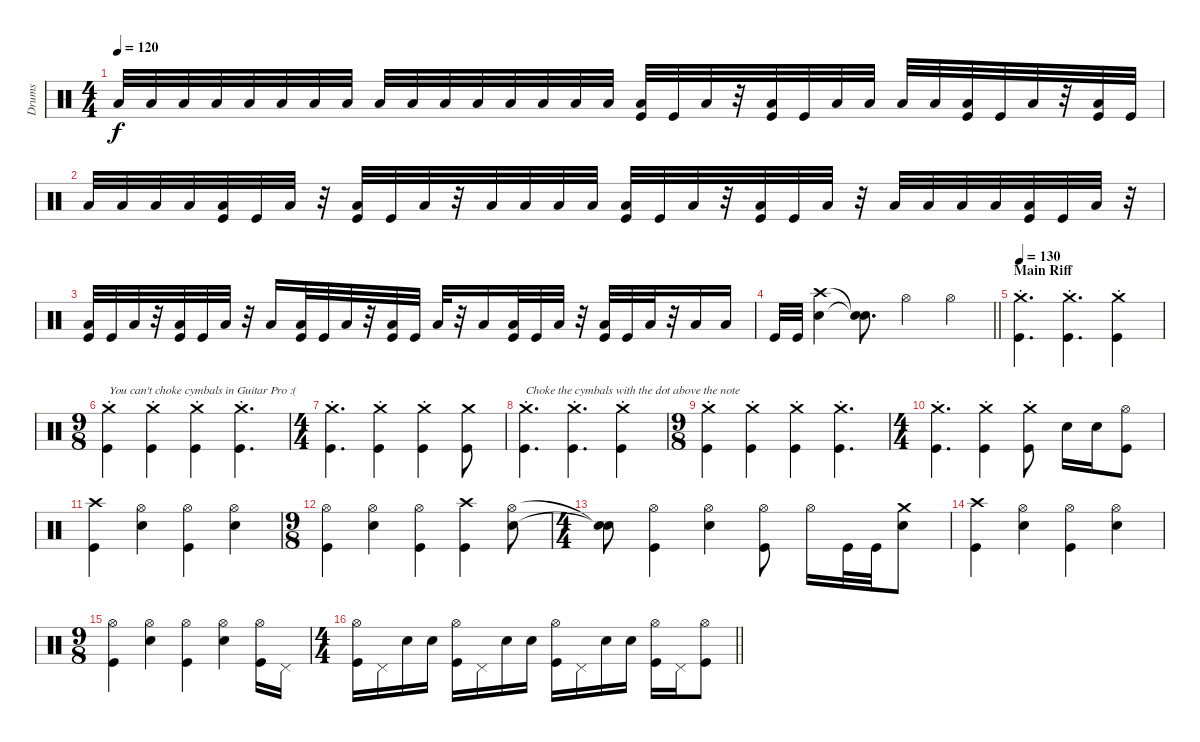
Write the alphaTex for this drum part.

\track ("Drums" "Drums") {instrument percussion}
\staff {score}
\articulation defaults
\ts (4 4)
\tempo 120
\clef neutral
\ks c "Low Floor Tom (hit)".32{dy f} "Low Floor Tom (hit)".32 "Low Floor Tom (hit)".32 "Low Floor Tom (hit)".32 "Low Floor Tom (hit)".32 "Low Floor Tom (hit)".32 "Low Floor Tom (hit)".32 "Low Floor Tom (hit)".32 "Low Floor Tom (hit)".32 "Low Floor Tom (hit)".32 "Low Floor Tom (hit)".32 "Low Floor Tom (hit)".32 "Low Floor Tom (hit)".32 "Low Floor Tom (hit)".32 "Low Floor Tom (hit)".32 "Low Floor Tom (hit)".32
("Low Floor Tom (hit)" "Kick (hit)").32 "Kick (hit)".32 "Low Floor Tom (hit)".32 r.32 ("Low Floor Tom (hit)" "Kick (hit)").32 "Kick (hit)".32 "Low Floor Tom (hit)".32 "Low Floor Tom (hit)".32 "Low Floor Tom (hit)".32 "Low Floor Tom (hit)".32 ("Low Floor Tom (hit)" "Kick (hit)").32 "Kick (hit)".32 "Low Floor Tom (hit)".32 r.32 ("Low Floor Tom (hit)" "Kick (hit)").32 "Kick (hit)".32 |
"Low Floor Tom (hit)".32 "Low Floor Tom (hit)".32 "Low Floor Tom (hit)".32 "Low Floor Tom (hit)".32 ("Low Floor Tom (hit)" "Kick (hit)").32 "Kick (hit)".32 "Low Floor Tom (hit)".32 r.32 ("Low Floor Tom (hit)" "Kick (hit)").32 "Kick (hit)".32 "Low Floor Tom (hit)".32 r.32 "Low Floor Tom (hit)".32 "Low Floor Tom (hit)".32 "Low Floor Tom (hit)".32 "Low Floor Tom (hit)".32 ("Low Floor Tom (hit)" "Kick (hit)").32 "Kick (hit)".32 "Low Floor Tom (hit)".32 r.32 ("Low Floor Tom (hit)" "Kick (hit)").32 "Kick (hit)".32 "Low Floor Tom (hit)".32 r.32 "Low Floor Tom (hit)".32 "Low Floor Tom (hit)".32 "Low Floor Tom (hit)".32 "Low Floor Tom (hit)".32 ("Low Floor Tom (hit)" "Kick (hit)").32 "Kick (hit)".32 "Low Floor Tom (hit)".32 r.32 |
("Low Floor Tom (hit)" "Kick (hit)").32 "Kick (hit)".32 "Low Floor Tom (hit)".32 r.32 ("Low Floor Tom (hit)" "Kick (hit)").32 "Kick (hit)".32 "Low Floor Tom (hit)".32 r.32 "Low Floor Tom (hit)".16 ("Low Floor Tom (hit)" "Kick (hit)").32 "Kick (hit)".32 "Low Floor Tom (hit)".32 r.32 ("Low Floor Tom (hit)" "Kick (hit)").32 "Kick (hit)".32 "Low Floor Tom (hit)".32 r.32 "Low Floor Tom (hit)".16 ("Low Floor Tom (hit)" "Kick (hit)").32 "Kick (hit)".32 "Low Floor Tom (hit)".32 r.32 ("Low Floor Tom (hit)" "Kick (hit)").32 "Kick (hit)".32 "Low Floor Tom (hit)".32 r.32 "Low Floor Tom (hit)".16 "Low Floor Tom (hit)".16 |
\barLineRight lightlight "Kick (hit)".32 "Kick (hit)".32
("Crash high (hit)" "Snare (hit) 2").4 ("Snare (hit)"{t} "Snare (hit)"{t}).8{d} "Hi-Hat (open)".4 "Hi-Hat (open)".4 |
\section ("" "Main Riff")
\tempo 130
("Crash medium (hit)"{st} "Kick (hit)"{st}).4{d} ("Crash medium (hit)"{st} "Kick (hit)"{st}).4{d} ("Crash medium (hit)"{st} "Kick (hit)"{st}).4 |
\ts (9 8)
("Crash medium (hit)"{st} "Kick (hit)"{st}).4{txt "You can't choke cymbals in Guitar Pro :( "} ("Crash medium (hit)"{st} "Kick (hit)"{st}).4 ("Crash medium (hit)"{st} "Kick (hit)"{st}).4 ("Crash medium (hit)"{st} "Kick (hit)"{st}).4{d} |
\ts (4 4)
("Crash medium (hit)"{st} "Kick (hit)"{st}).4{d} ("Crash medium (hit)"{st} "Kick (hit)"{st}).4 ("Crash medium (hit)"{st} "Kick (hit)"{st}).4 ("Crash medium (hit)" "Kick (hit)").8 |
("Crash medium (hit)"{st} "Kick (hit)"{st}).4{d txt "Choke the cymbals with the dot above the note"} ("Crash medium (hit)"{st} "Kick (hit)"{st}).4{d} ("Crash medium (hit)"{st} "Kick (hit)"{st}).4 |
\ts (9 8)
("Crash medium (hit)"{st} "Kick (hit)"{st}).4 ("Crash medium (hit)"{st} "Kick (hit)"{st}).4 ("Crash medium (hit)"{st} "Kick (hit)"{st}).4 ("Crash medium (hit)"{st} "Kick (hit)"{st}).4{d} |
\ts (4 4)
("Crash medium (hit)"{st} "Kick (hit)").4{d} ("Crash medium (hit)"{st} "Kick (hit)"{st}).4 ("Crash medium (hit)"{st} "Kick (hit)"{st}).8 "Snare (hit) 2".16 "Snare (hit) 2".16 ("Hi-Hat (open)" "Kick (hit)").8 |
("Crash high (hit)" "Kick (hit)").4 ("Hi-Hat (open)" "Snare (hit) 2").4 ("Hi-Hat (open)" "Kick (hit)").4 ("Hi-Hat (open)" "Snare (hit) 2").4 |
\ts (9 8)
("Hi-Hat (open)" "Kick (hit)").4 ("Hi-Hat (open)" "Snare (hit) 2").4 ("Hi-Hat (open)" "Kick (hit)").4 ("Crash high (hit)" "Kick (hit)").4 ("Hi-Hat (open)" "Snare (hit) 2").8 |
\ts (4 4)
("Snare (hit)"{t} "Snare (hit)"{t}).8 ("Hi-Hat (open)" "Kick (hit)").4 ("Hi-Hat (open)" "Snare (hit) 2").4 ("Hi-Hat (open)" "Kick (hit)").8 "Hi-Hat (open)".16 "Kick (hit)".32 "Kick (hit)".32 ("Crash medium (hit)" "Snare (hit) 2").8 |
("Crash high (hit)" "Kick (hit)").4 ("Hi-Hat (open)" "Snare (hit) 2").4 ("Hi-Hat (open)" "Kick (hit)").4 ("Hi-Hat (open)" "Snare (hit) 2").4 |
\ts (9 8)
("Hi-Hat (open)" "Kick (hit)").4 ("Hi-Hat (open)" "Snare (hit) 2").4 ("Hi-Hat (open)" "Kick (hit)").4 ("Hi-Hat (open)" "Snare (hit) 2").4 ("Hi-Hat (open)" "Kick (hit)").16 "Pedal Hi-Hat (hit)".16 |
\ts (4 4)
\barLineRight lightlight
("Hi-Hat (open)" "Kick (hit)").16 "Pedal Hi-Hat (hit)".16 "Snare (hit) 2".16 "Snare (hit) 2".16 ("Hi-Hat (open)" "Kick (hit)").16 "Pedal Hi-Hat (hit)".16 "Snare (hit) 2".16 "Snare (hit) 2".16 ("Hi-Hat (open)" "Kick (hit)").16 "Pedal Hi-Hat (hit)".16 "Snare (hit) 2".16 "Snare (hit) 2".16 ("Hi-Hat (open)" "Kick (hit)").16 "Pedal Hi-Hat (hit)".16 ("Hi-Hat (open)" "Kick (hit)").8
